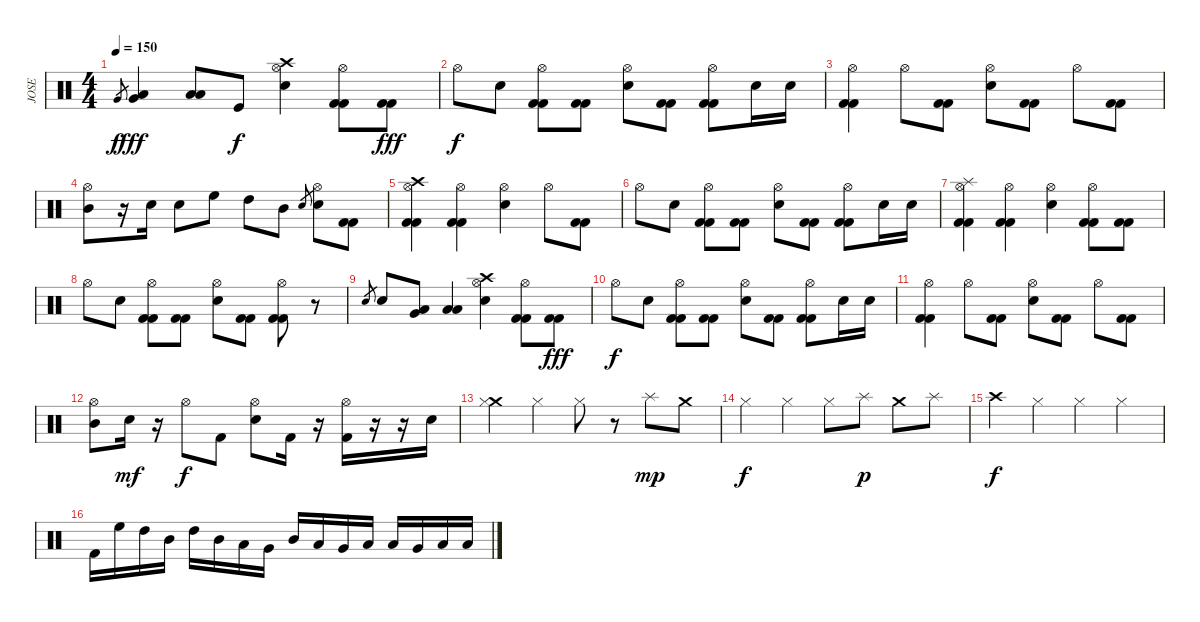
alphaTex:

\track ("JOSE" "JOSE") {instrument percussion}
\staff {score}
\articulation defaults
\ts (4 4)
\tempo 150
\clef neutral
\ks c "Very Low Tom (hit)".8{gr dy f}
("Low Tom (hit)" "Very Low Tom (hit)").4{dy fff} ("Low Tom (hit)" "Low Floor Tom (hit)").8 "Kick (hit)".8{dy f} ("Hi-Hat (open)" "Crash high (hit)" "Electric Snare (hit)").4 ("Hi-Hat (open)" "Kick (hit) 2" "Kick (hit) 2").8 ("Kick (hit) 2" "Kick (hit) 2").8{dy fff} |
"Hi-Hat (open)".8{dy f} "Electric Snare (hit)".8 ("Hi-Hat (open)" "Kick (hit) 2" "Kick (hit) 2").8 ("Kick (hit) 2" "Kick (hit) 2").8 ("Hi-Hat (open)" "Electric Snare (hit)").8 ("Kick (hit) 2" "Kick (hit) 2").8 ("Hi-Hat (open)" "Kick (hit) 2" "Kick (hit) 2").8 "Electric Snare (hit)".16 "Electric Snare (hit)".16 |
("Hi-Hat (open)" "Kick (hit) 2" "Kick (hit) 2").4 "Hi-Hat (open)".8 ("Kick (hit) 2" "Kick (hit) 2").8 ("Hi-Hat (open)" "Electric Snare (hit)").8 ("Kick (hit) 2" "Kick (hit) 2").8 "Hi-Hat (open)".8 ("Kick (hit) 2" "Kick (hit) 2").8 |
("Hi-Hat (open)" "Mid Tom (hit)").8 r.16 "Electric Snare (hit)".16 "Electric Snare (hit)".8 "High Floor Tom (hit)".8 "High Tom (hit)".8 "Mid Tom (hit)".8 "Electric Snare (hit)".8{gr} ("Hi-Hat (open)" "Electric Snare (hit)").8 ("Kick (hit) 2" "Kick (hit) 2").8 |
("Hi-Hat (open)" "Crash high (hit)" "Kick (hit) 2" "Kick (hit) 2").4 ("Hi-Hat (open)" "Kick (hit) 2" "Kick (hit) 2").4 ("Hi-Hat (open)" "Electric Snare (hit)").4 "Hi-Hat (open)".8 ("Kick (hit) 2" "Kick (hit) 2").8 |
"Hi-Hat (open)".8 "Electric Snare (hit)".8 ("Hi-Hat (open)" "Kick (hit) 2" "Kick (hit) 2").8 ("Kick (hit) 2" "Kick (hit) 2").8 ("Hi-Hat (open)" "Electric Snare (hit)").8 ("Kick (hit) 2" "Kick (hit) 2").8 ("Hi-Hat (open)" "Kick (hit) 2" "Kick (hit) 2").8 "Electric Snare (hit)".16 "Electric Snare (hit)".16 |
("Hi-Hat (open)" "Splash (hit)" "Kick (hit) 2" "Kick (hit) 2").4 ("Hi-Hat (open)" "Kick (hit) 2" "Kick (hit) 2").4 ("Hi-Hat (open)" "Electric Snare (hit)").4 ("Hi-Hat (open)" "Kick (hit) 2" "Kick (hit) 2").8 ("Kick (hit) 2" "Kick (hit) 2").8 |
"Hi-Hat (open)".8 "Electric Snare (hit)".8 ("Hi-Hat (open)" "Kick (hit) 2" "Kick (hit) 2").8 ("Kick (hit) 2" "Kick (hit) 2").8 ("Hi-Hat (open)" "Electric Snare (hit)").8 ("Kick (hit) 2" "Kick (hit) 2").8 ("Hi-Hat (open)" "Kick (hit) 2" "Kick (hit) 2").8 r.8 |
"Electric Snare (hit)".8{gr} "Electric Snare (hit)".8 ("Very Low Tom (hit)" "Low Tom (hit)").8 ("Low Floor Tom (hit)" "Low Tom (hit)").4 ("Hi-Hat (open)" "Crash high (hit)" "Electric Snare (hit)").4 ("Hi-Hat (open)" "Kick (hit) 2" "Kick (hit) 2").8 ("Kick (hit) 2" "Kick (hit) 2").8{dy fff} |
"Hi-Hat (open)".8{dy f} "Electric Snare (hit)".8 ("Hi-Hat (open)" "Kick (hit) 2" "Kick (hit) 2").8 ("Kick (hit) 2" "Kick (hit) 2").8 ("Hi-Hat (open)" "Electric Snare (hit)").8 ("Kick (hit) 2" "Kick (hit) 2").8 ("Hi-Hat (open)" "Kick (hit) 2" "Kick (hit) 2").8 "Electric Snare (hit)".16 "Electric Snare (hit)".16 |
("Hi-Hat (open)" "Kick (hit) 2" "Kick (hit) 2").4 "Hi-Hat (open)".8 ("Kick (hit) 2" "Kick (hit) 2").8 ("Hi-Hat (open)" "Electric Snare (hit)").8 ("Kick (hit) 2" "Kick (hit) 2").8 "Hi-Hat (open)".8 ("Kick (hit) 2" "Kick (hit) 2").8 |
("Hi-Hat (open)" "Mid Tom (hit)").8 "Electric Snare (hit)".16{dy mf} r.16 "Hi-Hat (open)".8{dy f} "Kick (hit) 2".8 ("Hi-Hat (open)" "Electric Snare (hit)").8 "Kick (hit) 2".16 r.16 ("Hi-Hat (open)" "Kick (hit) 2").16 r.16 r.16 "Electric Snare (hit)".16 |
("Crash medium (hit)" "Hi-Hat (closed)").4 "Hi-Hat (closed)".4 "Hi-Hat (closed)".8 r.8 "Splash (hit)".8{dy mp} "Crash medium (hit)".8 |
"Hi-Hat (closed)".4{dy f} "Hi-Hat (closed)".4 "Hi-Hat (closed)".8 "Splash (hit)".8{dy p} "Crash medium (hit)".8 "Splash (hit)".8 |
"Crash high (hit)".4{dy f} "Hi-Hat (closed)".4 "Hi-Hat (closed)".4 "Hi-Hat (closed)".4 |
"Kick (hit) 2".16 "High Floor Tom (hit)".16 "High Tom (hit)".16 "Mid Tom (hit)".16 "High Tom (hit)".16 "Mid Tom (hit)".16 "Low Tom (hit)".16 "Very Low Tom (hit)".16 "Mid Tom (hit)".16 "Low Tom (hit)".16 "Very Low Tom (hit)".16 "Low Floor Tom (hit)".16 "Low Tom (hit)".16 "Very Low Tom (hit)".16 "Low Floor Tom (hit)".16 "Low Floor Tom (hit)".16
